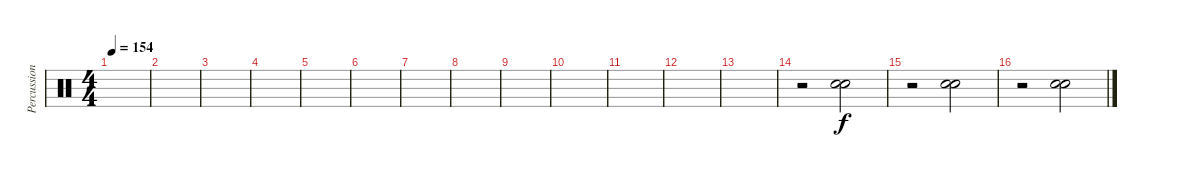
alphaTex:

\track ("Percussion" "Percussion") {instrument percussion}
\staff {score}
\articulation defaults
\ts (4 4)
\tempo 154
\clef neutral
\ks c
|
|
|
|
|
|
|
|
|
|
|
|
|
r.2{volume 16} ("Hand Clap (hit)" "Hand Clap (hit)").2{bd 480} |
r.2{volume 16} ("Hand Clap (hit)" "Hand Clap (hit)").2{bd 480} |
r.2{volume 16} ("Hand Clap (hit)" "Hand Clap (hit)").2{bd 480}
